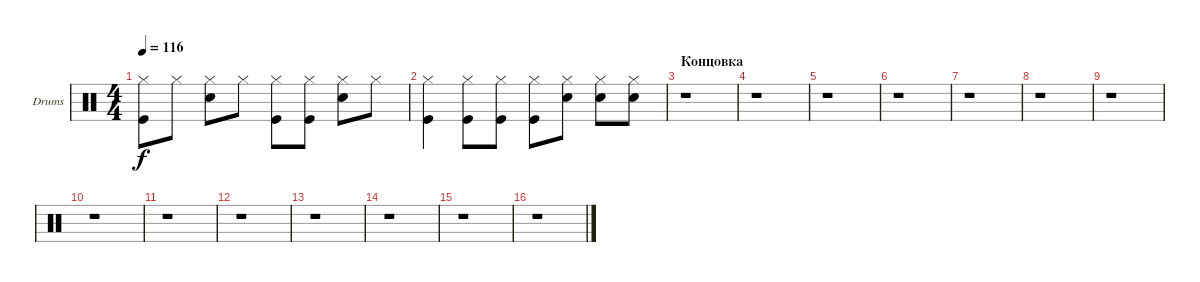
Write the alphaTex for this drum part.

\defaultSystemsLayout 4
\bracketExtendMode groupsimilarinstruments
\firstSystemTrackNameOrientation horizontal
\otherSystemsTrackNameOrientation horizontal
\track ("Drumkit" "Drums") {instrument percussion}
\staff {score}
\articulation defaults
\ts (4 4)
\tempo 116
\clef neutral
\ks c
("Hi-Hat (closed)" "Kick (hit)").8{dy f} "Hi-Hat (closed)".8 ("Hi-Hat (closed)" "Snare (hit) 2").8 "Hi-Hat (closed)".8 ("Hi-Hat (closed)" "Kick (hit)").8 ("Hi-Hat (closed)" "Kick (hit)").8 ("Hi-Hat (closed)" "Snare (hit) 2").8 "Hi-Hat (closed)".8 |
("Hi-Hat (closed)" "Kick (hit)").4 ("Hi-Hat (closed)" "Kick (hit)").8 ("Hi-Hat (closed)" "Kick (hit)").8 ("Hi-Hat (closed)" "Kick (hit)").8 ("Hi-Hat (closed)" "Snare (hit) 2").8 ("Hi-Hat (closed)" "Snare (hit) 2").8 ("Hi-Hat (closed)" "Snare (hit) 2").8 |
\section ("" "Концовка")
r.1 |
r.1 |
r.1 |
r.1 |
r.1 |
r.1 |
r.1 |
r.1 |
r.1 |
r.1 |
r.1 |
r.1 |
r.1 |
r.1
